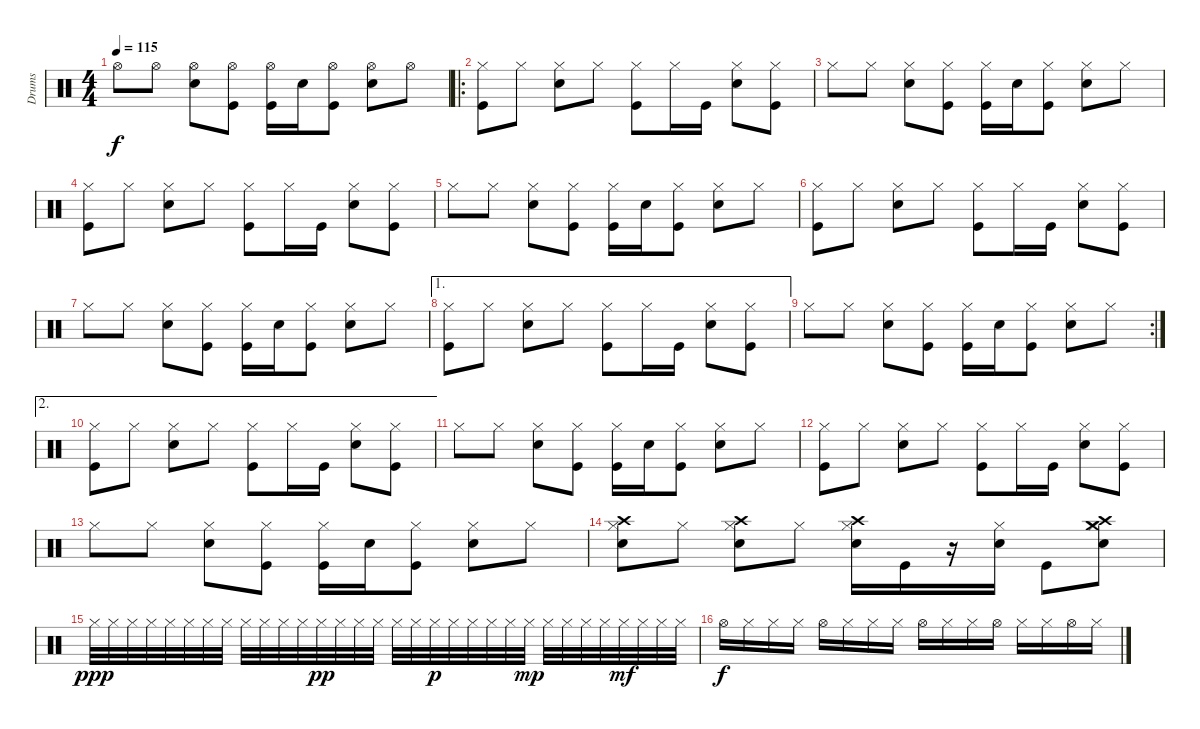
\track ("Drums" "Drums") {instrument percussion}
\staff {score}
\articulation defaults
\ts (4 4)
\tempo 115
\clef neutral
\ks c "Hi-Hat (open)".8{dy f} "Hi-Hat (open)".8
("Hi-Hat (open)" "Snare (hit) 2").8 ("Hi-Hat (open)" "Kick (hit)").8 ("Hi-Hat (open)" "Kick (hit)").16 "Snare (hit) 2".16 ("Hi-Hat (open)" "Kick (hit)").8 ("Hi-Hat (open)" "Snare (hit) 2").8 "Hi-Hat (open)".8 |
\ro
("Hi-Hat (closed)" "Kick (hit)").8 "Hi-Hat (closed)".8 ("Hi-Hat (closed)" "Snare (hit) 2").8 "Hi-Hat (closed)".8 ("Hi-Hat (closed)" "Kick (hit)").8 "Hi-Hat (closed)".16 "Kick (hit)".16 ("Hi-Hat (closed)" "Snare (hit) 2").8 ("Hi-Hat (closed)" "Kick (hit)").8 |
"Hi-Hat (closed)".8 "Hi-Hat (closed)".8 ("Hi-Hat (closed)" "Snare (hit) 2").8 ("Hi-Hat (closed)" "Kick (hit)").8 ("Hi-Hat (closed)" "Kick (hit)").16 "Snare (hit) 2".16 ("Hi-Hat (closed)" "Kick (hit)").8 ("Hi-Hat (closed)" "Snare (hit) 2").8 "Hi-Hat (closed)".8 |
("Hi-Hat (closed)" "Kick (hit)").8 "Hi-Hat (closed)".8 ("Hi-Hat (closed)" "Snare (hit) 2").8 "Hi-Hat (closed)".8 ("Hi-Hat (closed)" "Kick (hit)").8 "Hi-Hat (closed)".16 "Kick (hit)".16 ("Hi-Hat (closed)" "Snare (hit) 2").8 ("Hi-Hat (closed)" "Kick (hit)").8 |
"Hi-Hat (closed)".8 "Hi-Hat (closed)".8 ("Hi-Hat (closed)" "Snare (hit) 2").8 ("Hi-Hat (closed)" "Kick (hit)").8 ("Hi-Hat (closed)" "Kick (hit)").16 "Snare (hit) 2".16 ("Hi-Hat (closed)" "Kick (hit)").8 ("Hi-Hat (closed)" "Snare (hit) 2").8 "Hi-Hat (closed)".8 |
("Hi-Hat (closed)" "Kick (hit)").8 "Hi-Hat (closed)".8 ("Hi-Hat (closed)" "Snare (hit) 2").8 "Hi-Hat (closed)".8 ("Hi-Hat (closed)" "Kick (hit)").8 "Hi-Hat (closed)".16 "Kick (hit)".16 ("Hi-Hat (closed)" "Snare (hit) 2").8 ("Hi-Hat (closed)" "Kick (hit)").8 |
"Hi-Hat (closed)".8 "Hi-Hat (closed)".8 ("Hi-Hat (closed)" "Snare (hit) 2").8 ("Hi-Hat (closed)" "Kick (hit)").8 ("Hi-Hat (closed)" "Kick (hit)").16 "Snare (hit) 2".16 ("Hi-Hat (closed)" "Kick (hit)").8 ("Hi-Hat (closed)" "Snare (hit) 2").8 "Hi-Hat (closed)".8 |
\ae 1
("Hi-Hat (closed)" "Kick (hit)").8 "Hi-Hat (closed)".8 ("Hi-Hat (closed)" "Snare (hit) 2").8 "Hi-Hat (closed)".8 ("Hi-Hat (closed)" "Kick (hit)").8 "Hi-Hat (closed)".16 "Kick (hit)".16 ("Hi-Hat (closed)" "Snare (hit) 2").8 ("Hi-Hat (closed)" "Kick (hit)").8 |
\rc 2 "Hi-Hat (closed)".8 "Hi-Hat (closed)".8
("Hi-Hat (closed)" "Snare (hit) 2").8 ("Hi-Hat (closed)" "Kick (hit)").8 ("Hi-Hat (closed)" "Kick (hit)").16 "Snare (hit) 2".16 ("Hi-Hat (closed)" "Kick (hit)").8 ("Hi-Hat (closed)" "Snare (hit) 2").8 "Hi-Hat (closed)".8 |
\ae 2
("Hi-Hat (closed)" "Kick (hit)").8 "Hi-Hat (closed)".8 ("Hi-Hat (closed)" "Snare (hit) 2").8 "Hi-Hat (closed)".8 ("Hi-Hat (closed)" "Kick (hit)").8 "Hi-Hat (closed)".16 "Kick (hit)".16 ("Hi-Hat (closed)" "Snare (hit) 2").8 ("Hi-Hat (closed)" "Kick (hit)").8 |
"Hi-Hat (closed)".8 "Hi-Hat (closed)".8 ("Hi-Hat (closed)" "Snare (hit) 2").8 ("Hi-Hat (closed)" "Kick (hit)").8 ("Hi-Hat (closed)" "Kick (hit)").16 "Snare (hit) 2".16 ("Hi-Hat (closed)" "Kick (hit)").8 ("Hi-Hat (closed)" "Snare (hit) 2").8 "Hi-Hat (closed)".8 |
("Hi-Hat (closed)" "Kick (hit)").8 "Hi-Hat (closed)".8 ("Hi-Hat (closed)" "Snare (hit) 2").8 "Hi-Hat (closed)".8 ("Hi-Hat (closed)" "Kick (hit)").8 "Hi-Hat (closed)".16 "Kick (hit)".16 ("Hi-Hat (closed)" "Snare (hit) 2").8 ("Hi-Hat (closed)" "Kick (hit)").8 |
"Hi-Hat (closed)".8 "Hi-Hat (closed)".8 ("Hi-Hat (closed)" "Snare (hit) 2").8 ("Hi-Hat (closed)" "Kick (hit)").8 ("Hi-Hat (closed)" "Kick (hit)").16 "Snare (hit) 2".16 ("Hi-Hat (closed)" "Kick (hit)").8 ("Hi-Hat (closed)" "Snare (hit) 2").8 "Hi-Hat (closed)".8 |
("Crash high (hit)" "Hi-Hat (closed)" "Snare (hit) 2").8 "Hi-Hat (closed)".8 ("Crash high (hit)" "Hi-Hat (closed)" "Snare (hit) 2").8 "Hi-Hat (closed)".8 ("Crash high (hit)" "Hi-Hat (closed)" "Snare (hit) 2").16 "Kick (hit)".16 r.16 ("Hi-Hat (closed)" "Snare (hit) 2").16 "Kick (hit)".8 ("Crash high (hit)" "Hi-Hat (closed)" "Snare (hit) 2" "Crash medium (hit)").8 |
"Hi-Hat (closed)".32{dy ppp} "Hi-Hat (closed)".32 "Hi-Hat (closed)".32 "Hi-Hat (closed)".32 "Hi-Hat (closed)".32 "Hi-Hat (closed)".32 "Hi-Hat (closed)".32 "Hi-Hat (closed)".32 "Hi-Hat (closed)".32 "Hi-Hat (closed)".32 "Hi-Hat (closed)".32 "Hi-Hat (closed)".32 "Hi-Hat (closed)".32{dy pp} "Hi-Hat (closed)".32 "Hi-Hat (closed)".32 "Hi-Hat (closed)".32 "Hi-Hat (closed)".32 "Hi-Hat (closed)".32 "Hi-Hat (closed)".32{dy p} "Hi-Hat (closed)".32 "Hi-Hat (closed)".32 "Hi-Hat (closed)".32 "Hi-Hat (closed)".32 "Hi-Hat (closed)".32{dy mp} "Hi-Hat (closed)".32 "Hi-Hat (closed)".32 "Hi-Hat (closed)".32 "Hi-Hat (closed)".32 "Hi-Hat (closed)".32{dy mf} "Hi-Hat (closed)".32 "Hi-Hat (closed)".32 "Hi-Hat (closed)".32 |
"Hi-Hat (open)".16{dy f} "Hi-Hat (closed)".16 "Hi-Hat (closed)".16 "Hi-Hat (closed)".16 "Hi-Hat (open)".16 "Hi-Hat (closed)".16 "Hi-Hat (closed)".16 "Hi-Hat (closed)".16 "Hi-Hat (open)".16 "Hi-Hat (closed)".16 "Hi-Hat (closed)".16 "Hi-Hat (open)".16 "Hi-Hat (closed)".16 "Hi-Hat (closed)".16 "Hi-Hat (open)".16 "Hi-Hat (closed)".16
